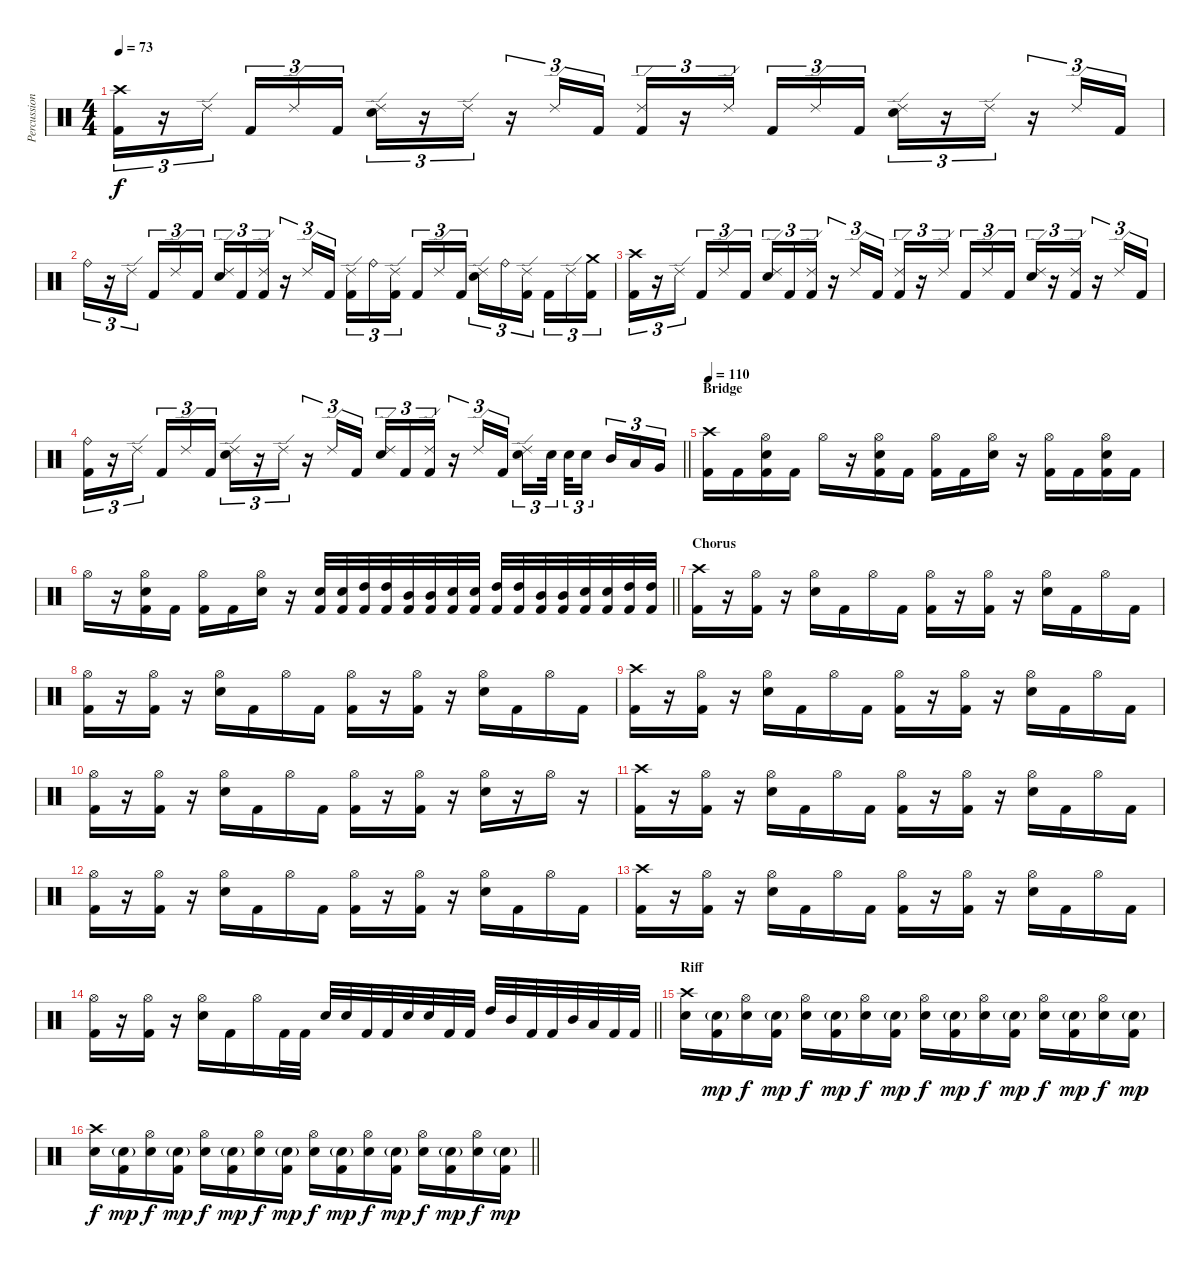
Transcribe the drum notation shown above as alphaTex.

\track ("Percussion" "Percussion") {instrument percussion}
\staff {score}
\articulation defaults
\ts (4 4)
\tempo 73
\clef neutral
\ks c
("Crash high (hit)" "Kick (hit) 2").16{tu (3 2) dy f} r.16{tu (3 2)} "Ride (edge) 2".16{tu (3 2) beam splitsecondary} "Kick (hit) 2".16{tu (3 2)} "Ride (edge) 2".16{tu (3 2)} "Kick (hit) 2".16{tu (3 2)} ("Ride (edge) 2" "Snare (hit) 2").16{tu (3 2)} r.16{tu (3 2)} "Ride (edge) 2".16{tu (3 2)} r.16{tu (3 2)} "Ride (edge) 2".16{tu (3 2)} "Kick (hit) 2".16{tu (3 2)} ("Ride (edge) 2" "Kick (hit) 2").16{tu (3 2)} r.16{tu (3 2)} "Ride (edge) 2".16{tu (3 2) beam splitsecondary} "Kick (hit) 2".16{tu (3 2)} "Ride (edge) 2".16{tu (3 2)} "Kick (hit) 2".16{tu (3 2)} ("Ride (edge) 2" "Snare (hit) 2").16{tu (3 2)} r.16{tu (3 2)} "Ride (edge) 2".16{tu (3 2)} r.16{tu (3 2)} "Ride (edge) 2".16{tu (3 2)} "Kick (hit) 2".16{tu (3 2)} |
"Ride (bell)".16{tu (3 2)} r.16{tu (3 2)} "Ride (edge) 2".16{tu (3 2) beam splitsecondary} "Kick (hit) 2".16{tu (3 2)} "Ride (edge) 2".16{tu (3 2)} "Kick (hit) 2".16{tu (3 2)} ("Ride (edge) 2" "Snare (hit) 2").16{tu (3 2)} "Kick (hit) 2".16{tu (3 2)} ("Ride (edge) 2" "Kick (hit) 2").16{tu (3 2)} r.16{tu (3 2)} "Ride (edge) 2".16{tu (3 2)} "Kick (hit) 2".16{tu (3 2)} ("Ride (edge) 2" "Kick (hit) 2").16{tu (3 2)} "Ride (bell)".16{tu (3 2)} ("Ride (edge) 2" "Kick (hit) 2").16{tu (3 2) beam splitsecondary} "Kick (hit) 2".16{tu (3 2)} "Ride (edge) 2".16{tu (3 2)} "Kick (hit) 2".16{tu (3 2)} ("Ride (edge) 2" "Snare (hit) 2").16{tu (3 2)} "Ride (bell)".16{tu (3 2)} ("Ride (edge) 2" "Kick (hit) 2").16{tu (3 2) beam splitsecondary} "Kick (hit) 2".16{tu (3 2)} "Ride (edge) 2".16{tu (3 2)} ("Crash medium (hit)" "Kick (hit) 2").16{tu (3 2)} |
("Crash high (hit)" "Kick (hit) 2").16{tu (3 2)} r.16{tu (3 2)} "Ride (edge) 2".16{tu (3 2) beam splitsecondary} "Kick (hit) 2".16{tu (3 2)} "Ride (edge) 2".16{tu (3 2)} "Kick (hit) 2".16{tu (3 2)} ("Ride (edge) 2" "Snare (hit) 2").16{tu (3 2)} "Kick (hit) 2".16{tu (3 2)} ("Ride (edge) 2" "Kick (hit) 2").16{tu (3 2)} r.16{tu (3 2)} "Ride (edge) 2".16{tu (3 2)} "Kick (hit) 2".16{tu (3 2)} ("Ride (edge) 2" "Kick (hit) 2").16{tu (3 2)} r.16{tu (3 2)} "Ride (edge) 2".16{tu (3 2) beam splitsecondary} "Kick (hit) 2".16{tu (3 2)} "Ride (edge) 2".16{tu (3 2)} "Kick (hit) 2".16{tu (3 2)} ("Ride (edge) 2" "Snare (hit) 2").16{tu (3 2)} r.16{tu (3 2)} ("Ride (edge) 2" "Kick (hit) 2").16{tu (3 2)} r.16{tu (3 2)} "Ride (edge) 2".16{tu (3 2)} "Kick (hit) 2".16{tu (3 2)} |
\barLineRight lightlight
("Ride (bell)" "Kick (hit) 2").16{tu (3 2)} r.16{tu (3 2)} "Ride (edge) 2".16{tu (3 2) beam splitsecondary} "Kick (hit) 2".16{tu (3 2)} "Ride (edge) 2".16{tu (3 2)} "Kick (hit) 2".16{tu (3 2)} ("Ride (edge) 2" "Snare (hit) 2").16{tu (3 2)} r.16{tu (3 2)} "Ride (edge) 2".16{tu (3 2)} r.16{tu (3 2)} "Ride (edge) 2".16{tu (3 2)} "Kick (hit) 2".16{tu (3 2)} ("Ride (edge) 2" "Snare (hit) 2").16{tu (3 2)} "Kick (hit) 2".16{tu (3 2)} ("Ride (edge) 2" "Kick (hit) 2").16{tu (3 2)} r.16{tu (3 2)} "Ride (edge) 2".16{tu (3 2)} "Kick (hit) 2".16{tu (3 2)} ("Ride (edge) 2" "Snare (hit) 2").16{tu (3 2)} "Snare (hit) 2".32{tu (3 2) beam splitsecondary} "Snare (hit) 2".32{tu (3 2)} "Snare (hit) 2".16{tu (3 2) beam splitsecondary} "Mid Tom (hit)".16{tu (3 2)} "Low Tom (hit)".16{tu (3 2)} "Very Low Tom (hit)".16{tu (3 2)} |
\section ("" "Bridge")
\tempo 110
("Crash high (hit)" "Kick (hit) 2").16 "Kick (hit) 2".16 ("Hi-Hat (open)" "Snare (hit) 2" "Kick (hit) 2").16 "Kick (hit) 2".16 "Hi-Hat (open)".16 r.16 ("Hi-Hat (open)" "Snare (hit) 2" "Kick (hit) 2").16 "Kick (hit) 2".16 ("Hi-Hat (open)" "Kick (hit) 2").16 "Kick (hit) 2".16 ("Hi-Hat (open)" "Snare (hit) 2").16 r.16 ("Hi-Hat (open)" "Kick (hit) 2").16 "Kick (hit) 2".16 ("Hi-Hat (open)" "Snare (hit) 2" "Kick (hit) 2").16 "Kick (hit) 2".16 |
\barLineRight lightlight "Hi-Hat (open)".16
r.16 ("Hi-Hat (open)" "Snare (hit) 2" "Kick (hit) 2").16 "Kick (hit) 2".16 ("Hi-Hat (open)" "Kick (hit) 2").16 "Kick (hit) 2".16 ("Hi-Hat (open)" "Snare (hit) 2").16 r.16 ("Snare (hit) 2" "Kick (hit) 2").32 ("Snare (hit) 2" "Kick (hit) 2").32 ("High Tom (hit)" "Kick (hit) 2").32 ("High Tom (hit)" "Kick (hit) 2").32 ("Mid Tom (hit)" "Kick (hit) 2").32 ("Mid Tom (hit)" "Kick (hit) 2").32 ("Snare (hit) 2" "Kick (hit) 2").32 ("Snare (hit) 2" "Kick (hit) 2").32 ("High Tom (hit)" "Kick (hit) 2").32 ("High Tom (hit)" "Kick (hit) 2").32 ("Mid Tom (hit)" "Kick (hit) 2").32 ("Mid Tom (hit)" "Kick (hit) 2").32 ("Snare (hit) 2" "Kick (hit) 2").32 ("Snare (hit) 2" "Kick (hit) 2").32 ("High Tom (hit)" "Kick (hit) 2").32 ("High Tom (hit)" "Kick (hit) 2").32 |
\section ("" "Chorus")
("Crash high (hit)" "Kick (hit) 2").16 r.16 ("Hi-Hat (open)" "Kick (hit) 2").16 r.16 ("Hi-Hat (open)" "Snare (hit) 2").16 "Kick (hit) 2".16 "Hi-Hat (open)".16 "Kick (hit) 2".16 ("Hi-Hat (open)" "Kick (hit) 2").16 r.16 ("Hi-Hat (open)" "Kick (hit) 2").16 r.16 ("Hi-Hat (open)" "Snare (hit) 2").16 "Kick (hit) 2".16 "Hi-Hat (open)".16 "Kick (hit) 2".16 |
("Hi-Hat (open)" "Kick (hit) 2").16 r.16 ("Hi-Hat (open)" "Kick (hit) 2").16 r.16 ("Hi-Hat (open)" "Snare (hit) 2").16 "Kick (hit) 2".16 "Hi-Hat (open)".16 "Kick (hit) 2".16 ("Hi-Hat (open)" "Kick (hit) 2").16 r.16 ("Hi-Hat (open)" "Kick (hit) 2").16 r.16 ("Hi-Hat (open)" "Snare (hit) 2").16 "Kick (hit) 2".16 "Hi-Hat (open)".16 "Kick (hit) 2".16 |
("Crash high (hit)" "Kick (hit) 2").16 r.16 ("Hi-Hat (open)" "Kick (hit) 2").16 r.16 ("Hi-Hat (open)" "Snare (hit) 2").16 "Kick (hit) 2".16 "Hi-Hat (open)".16 "Kick (hit) 2".16 ("Hi-Hat (open)" "Kick (hit) 2").16 r.16 ("Hi-Hat (open)" "Kick (hit) 2").16 r.16 ("Hi-Hat (open)" "Snare (hit) 2").16 "Kick (hit) 2".16 "Hi-Hat (open)".16 "Kick (hit) 2".16 |
("Hi-Hat (open)" "Kick (hit) 2").16 r.16 ("Hi-Hat (open)" "Kick (hit) 2").16 r.16 ("Hi-Hat (open)" "Snare (hit) 2").16 "Kick (hit) 2".16 "Hi-Hat (open)".16 "Kick (hit) 2".16 ("Hi-Hat (open)" "Kick (hit) 2").16 r.16 ("Hi-Hat (open)" "Kick (hit) 2").16 r.16 ("Hi-Hat (open)" "Snare (hit) 2").16 r.16 "Hi-Hat (open)".16 r.16 |
("Crash high (hit)" "Kick (hit) 2").16 r.16 ("Hi-Hat (open)" "Kick (hit) 2").16 r.16 ("Hi-Hat (open)" "Snare (hit) 2").16 "Kick (hit) 2".16 "Hi-Hat (open)".16 "Kick (hit) 2".16 ("Hi-Hat (open)" "Kick (hit) 2").16 r.16 ("Hi-Hat (open)" "Kick (hit) 2").16 r.16 ("Hi-Hat (open)" "Snare (hit) 2").16 "Kick (hit) 2".16 "Hi-Hat (open)".16 "Kick (hit) 2".16 |
("Hi-Hat (open)" "Kick (hit) 2").16 r.16 ("Hi-Hat (open)" "Kick (hit) 2").16 r.16 ("Hi-Hat (open)" "Snare (hit) 2").16 "Kick (hit) 2".16 "Hi-Hat (open)".16 "Kick (hit) 2".16 ("Hi-Hat (open)" "Kick (hit) 2").16 r.16 ("Hi-Hat (open)" "Kick (hit) 2").16 r.16 ("Hi-Hat (open)" "Snare (hit) 2").16 "Kick (hit) 2".16 "Hi-Hat (open)".16 "Kick (hit) 2".16 |
("Crash high (hit)" "Kick (hit) 2").16 r.16 ("Hi-Hat (open)" "Kick (hit) 2").16 r.16 ("Hi-Hat (open)" "Snare (hit) 2").16 "Kick (hit) 2".16 "Hi-Hat (open)".16 "Kick (hit) 2".16 ("Hi-Hat (open)" "Kick (hit) 2").16 r.16 ("Hi-Hat (open)" "Kick (hit) 2").16 r.16 ("Hi-Hat (open)" "Snare (hit) 2").16 "Kick (hit) 2".16 "Hi-Hat (open)".16 "Kick (hit) 2".16 |
\barLineRight lightlight
("Hi-Hat (open)" "Kick (hit) 2").16 r.16 ("Hi-Hat (open)" "Kick (hit) 2").16 r.16 ("Hi-Hat (open)" "Snare (hit) 2").16 "Kick (hit) 2".16 "Hi-Hat (open)".16 "Kick (hit) 2".32 "Kick (hit) 2".32 "Snare (hit) 2".32 "Snare (hit) 2".32 "Kick (hit) 2".32 "Kick (hit) 2".32 "Snare (hit) 2".32 "Snare (hit) 2".32 "Kick (hit) 2".32 "Kick (hit) 2".32 "High Tom (hit)".32 "Mid Tom (hit)".32 "Kick (hit) 2".32 "Kick (hit) 2".32 "Mid Tom (hit)".32 "Low Tom (hit)".32 "Kick (hit) 2".32 "Kick (hit) 2".32 |
\section ("" "Riff")
("Crash high (hit)" "Snare (hit) 2").16 ("Snare (hit) 2"{g} "Kick (hit) 2").16{dy mp} ("Hi-Hat (open)" "Snare (hit) 2").16{dy f} ("Snare (hit) 2"{g} "Kick (hit) 2").16{dy mp} ("Hi-Hat (open)" "Snare (hit) 2").16{dy f} ("Snare (hit) 2"{g} "Kick (hit) 2").16{dy mp} ("Hi-Hat (open)" "Snare (hit) 2").16{dy f} ("Snare (hit) 2"{g} "Kick (hit) 2").16{dy mp} ("Hi-Hat (open)" "Snare (hit) 2").16{dy f} ("Snare (hit) 2"{g} "Kick (hit) 2").16{dy mp} ("Hi-Hat (open)" "Snare (hit) 2").16{dy f} ("Snare (hit) 2"{g} "Kick (hit) 2").16{dy mp} ("Hi-Hat (open)" "Snare (hit) 2").16{dy f} ("Snare (hit) 2"{g} "Kick (hit) 2").16{dy mp} ("Hi-Hat (open)" "Snare (hit) 2").16{dy f} ("Snare (hit) 2"{g} "Kick (hit) 2").16{dy mp} |
\barLineRight lightlight
("Crash high (hit)" "Snare (hit) 2").16{dy f} ("Snare (hit) 2"{g} "Kick (hit) 2").16{dy mp} ("Hi-Hat (open)" "Snare (hit) 2").16{dy f} ("Snare (hit) 2"{g} "Kick (hit) 2").16{dy mp} ("Hi-Hat (open)" "Snare (hit) 2").16{dy f} ("Snare (hit) 2"{g} "Kick (hit) 2").16{dy mp} ("Hi-Hat (open)" "Snare (hit) 2").16{dy f} ("Snare (hit) 2"{g} "Kick (hit) 2").16{dy mp} ("Hi-Hat (open)" "Snare (hit) 2").16{dy f} ("Snare (hit) 2"{g} "Kick (hit) 2").16{dy mp} ("Hi-Hat (open)" "Snare (hit) 2").16{dy f} ("Snare (hit) 2"{g} "Kick (hit) 2").16{dy mp} ("Hi-Hat (open)" "Snare (hit) 2").16{dy f} ("Snare (hit) 2"{g} "Kick (hit) 2").16{dy mp} ("Hi-Hat (open)" "Snare (hit) 2").16{dy f} ("Snare (hit) 2"{g} "Kick (hit) 2").16{dy mp}
